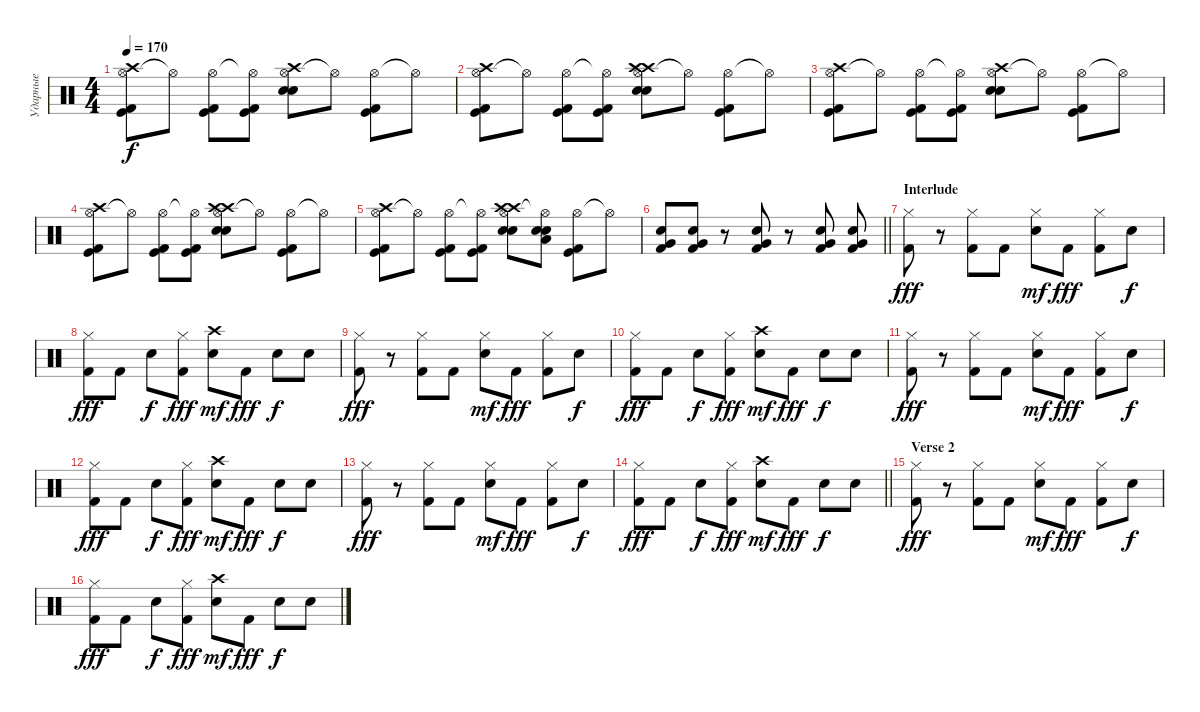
\track ("Ударные" "Ударные") {instrument percussion}
\staff {score}
\articulation defaults
\ts (4 4)
\tempo 170
\clef neutral
\ks c
("Hi-Hat (open)" "Kick (hit)" "Kick (hit) 2" "Crash high (hit)").8{dy f} "Hi-Hat (open)"{t}.8 ("Hi-Hat (open)" "Kick (hit)" "Kick (hit) 2").8 ("Hi-Hat (open)"{t} "Kick (hit)" "Kick (hit) 2").8 ("Hi-Hat (open)" "Electric Snare (hit)" "Electric Snare (hit)" "Crash high (hit)").8 "Hi-Hat (open)"{t}.8 ("Hi-Hat (open)" "Kick (hit)" "Kick (hit) 2").8 "Hi-Hat (open)"{t}.8 |
("Hi-Hat (open)" "Kick (hit)" "Kick (hit) 2" "Crash high (hit)").8 "Hi-Hat (open)"{t}.8 ("Hi-Hat (open)" "Kick (hit)" "Kick (hit) 2").8 ("Hi-Hat (open)"{t} "Kick (hit)" "Kick (hit) 2").8 ("Hi-Hat (open)" "Electric Snare (hit)" "Electric Snare (hit)" "Crash high (hit)" "Crash high (hit)").8 "Hi-Hat (open)"{t}.8 ("Hi-Hat (open)" "Kick (hit)" "Kick (hit) 2").8 "Hi-Hat (open)"{t}.8 |
("Hi-Hat (open)" "Kick (hit)" "Kick (hit) 2" "Crash high (hit)").8 "Hi-Hat (open)"{t}.8 ("Hi-Hat (open)" "Kick (hit)" "Kick (hit) 2").8 ("Hi-Hat (open)"{t} "Kick (hit)" "Kick (hit) 2").8 ("Hi-Hat (open)" "Electric Snare (hit)" "Electric Snare (hit)" "Crash high (hit)").8 "Hi-Hat (open)"{t}.8 ("Hi-Hat (open)" "Kick (hit)" "Kick (hit) 2").8 "Hi-Hat (open)"{t}.8 |
("Hi-Hat (open)" "Kick (hit)" "Kick (hit) 2" "Crash high (hit)").8 "Hi-Hat (open)"{t}.8 ("Hi-Hat (open)" "Kick (hit)" "Kick (hit) 2").8 ("Hi-Hat (open)"{t} "Kick (hit)" "Kick (hit) 2").8 ("Hi-Hat (open)" "Electric Snare (hit)" "Electric Snare (hit)" "Crash high (hit)" "Crash high (hit)").8 "Hi-Hat (open)"{t}.8 ("Hi-Hat (open)" "Kick (hit)" "Kick (hit) 2").8 "Hi-Hat (open)"{t}.8 |
("Hi-Hat (open)" "Kick (hit)" "Kick (hit) 2" "Crash high (hit)").8 "Hi-Hat (open)"{t}.8 ("Hi-Hat (open)" "Kick (hit)" "Kick (hit) 2").8 ("Hi-Hat (open)"{t} "Kick (hit)" "Kick (hit) 2").8 ("Hi-Hat (open)" "Electric Snare (hit)" "Electric Snare (hit)" "Crash high (hit)" "Crash high (hit)").8 ("Hi-Hat (open)"{t} "Electric Snare (hit)" "Electric Snare (hit)" "Low Tom (hit)").8 ("Hi-Hat (open)" "Kick (hit)" "Kick (hit) 2").8 "Hi-Hat (open)"{t}.8 |
\barLineRight lightlight
("Kick (hit) 2" "Electric Snare (hit)" "Very Low Tom (hit)").8 ("Kick (hit) 2" "Electric Snare (hit)" "Very Low Tom (hit)").8 r.8 ("Kick (hit) 2" "Electric Snare (hit)" "Very Low Tom (hit)").8 r.8 ("Kick (hit) 2" "Electric Snare (hit)" "Very Low Tom (hit)").8 ("Kick (hit) 2" "Electric Snare (hit)" "Very Low Tom (hit)").8 |
\section ("" "Interlude")
("Hi-Hat (closed)" "Kick (hit) 2").8{dy fff} r.8 ("Hi-Hat (closed)" "Kick (hit) 2").8 "Kick (hit) 2".8 ("Hi-Hat (closed)" "Electric Snare (hit)").8{dy mf} "Kick (hit) 2".8{dy fff} ("Hi-Hat (closed)" "Kick (hit) 2").8 "Electric Snare (hit)".8{dy f} |
("Hi-Hat (closed)" "Kick (hit) 2").8{dy fff} "Kick (hit) 2".8 "Electric Snare (hit)".8{dy f} ("Hi-Hat (closed)" "Kick (hit) 2").8{dy fff} ("Crash high (hit)" "Electric Snare (hit)").8{dy mf} "Kick (hit) 2".8{dy fff} "Electric Snare (hit)".8{dy f} "Electric Snare (hit)".8 |
("Hi-Hat (closed)" "Kick (hit) 2").8{dy fff} r.8 ("Hi-Hat (closed)" "Kick (hit) 2").8 "Kick (hit) 2".8 ("Hi-Hat (closed)" "Electric Snare (hit)").8{dy mf} "Kick (hit) 2".8{dy fff} ("Hi-Hat (closed)" "Kick (hit) 2").8 "Electric Snare (hit)".8{dy f} |
("Hi-Hat (closed)" "Kick (hit) 2").8{dy fff} "Kick (hit) 2".8 "Electric Snare (hit)".8{dy f} ("Hi-Hat (closed)" "Kick (hit) 2").8{dy fff} ("Crash high (hit)" "Electric Snare (hit)").8{dy mf} "Kick (hit) 2".8{dy fff} "Electric Snare (hit)".8{dy f} "Electric Snare (hit)".8 |
("Hi-Hat (closed)" "Kick (hit) 2").8{dy fff} r.8 ("Hi-Hat (closed)" "Kick (hit) 2").8 "Kick (hit) 2".8 ("Hi-Hat (closed)" "Electric Snare (hit)").8{dy mf} "Kick (hit) 2".8{dy fff} ("Hi-Hat (closed)" "Kick (hit) 2").8 "Electric Snare (hit)".8{dy f} |
("Hi-Hat (closed)" "Kick (hit) 2").8{dy fff} "Kick (hit) 2".8 "Electric Snare (hit)".8{dy f} ("Hi-Hat (closed)" "Kick (hit) 2").8{dy fff} ("Crash high (hit)" "Electric Snare (hit)").8{dy mf} "Kick (hit) 2".8{dy fff} "Electric Snare (hit)".8{dy f} "Electric Snare (hit)".8 |
("Hi-Hat (closed)" "Kick (hit) 2").8{dy fff} r.8 ("Hi-Hat (closed)" "Kick (hit) 2").8 "Kick (hit) 2".8 ("Hi-Hat (closed)" "Electric Snare (hit)").8{dy mf} "Kick (hit) 2".8{dy fff} ("Hi-Hat (closed)" "Kick (hit) 2").8 "Electric Snare (hit)".8{dy f} |
\barLineRight lightlight
("Hi-Hat (closed)" "Kick (hit) 2").8{dy fff} "Kick (hit) 2".8 "Electric Snare (hit)".8{dy f} ("Hi-Hat (closed)" "Kick (hit) 2").8{dy fff} ("Crash high (hit)" "Electric Snare (hit)").8{dy mf} "Kick (hit) 2".8{dy fff} "Electric Snare (hit)".8{dy f} "Electric Snare (hit)".8 |
\section ("" "Verse 2")
("Hi-Hat (closed)" "Kick (hit) 2").8{dy fff} r.8 ("Hi-Hat (closed)" "Kick (hit) 2").8 "Kick (hit) 2".8 ("Hi-Hat (closed)" "Electric Snare (hit)").8{dy mf} "Kick (hit) 2".8{dy fff} ("Hi-Hat (closed)" "Kick (hit) 2").8 "Electric Snare (hit)".8{dy f} |
("Hi-Hat (closed)" "Kick (hit) 2").8{dy fff} "Kick (hit) 2".8 "Electric Snare (hit)".8{dy f} ("Hi-Hat (closed)" "Kick (hit) 2").8{dy fff} ("Crash high (hit)" "Electric Snare (hit)").8{dy mf} "Kick (hit) 2".8{dy fff} "Electric Snare (hit)".8{dy f} "Electric Snare (hit)".8
